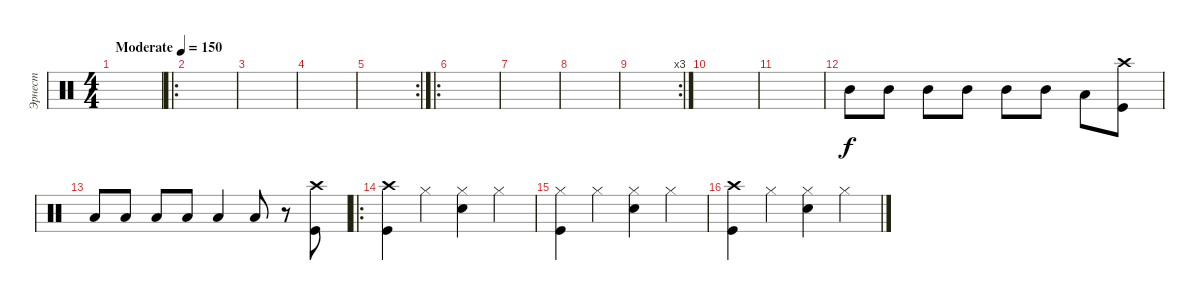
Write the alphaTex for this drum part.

\track ("Эрнест" "Эрнест") {instrument percussion}
\staff {score}
\articulation defaults
\ts (4 4)
\tempo (150 "Moderate")
\clef neutral
\ks c
|
\ro
|
|
|
\rc 2
|
\ro
|
|
|
\rc 3
|
|
|
"Mid Tom (hit)".8 "Mid Tom (hit)".8 "Mid Tom (hit)".8 "Mid Tom (hit)".8 "Mid Tom (hit)".8 "Mid Tom (hit)".8 "Low Floor Tom (hit)".8 ("Kick (hit)" "Crash high (hit)").8 |
"Low Tom (hit)".8 "Low Tom (hit)".8 "Low Tom (hit)".8 "Low Tom (hit)".8 "Low Tom (hit)".4 "Low Tom (hit)".8 r.8 ("Kick (hit)" "Crash high (hit)").8 |
\ro
("Crash high (hit)" "Kick (hit)").4 "Hi-Hat (closed)".4 ("Hi-Hat (closed)" "Snare (hit) 2").4 "Hi-Hat (closed)".4 |
("Hi-Hat (closed)" "Kick (hit)").4 "Hi-Hat (closed)".4 ("Hi-Hat (closed)" "Snare (hit) 2").4 "Hi-Hat (closed)".4 |
("Crash high (hit)" "Kick (hit)").4 "Hi-Hat (closed)".4 ("Hi-Hat (closed)" "Snare (hit) 2").4 "Hi-Hat (closed)".4
